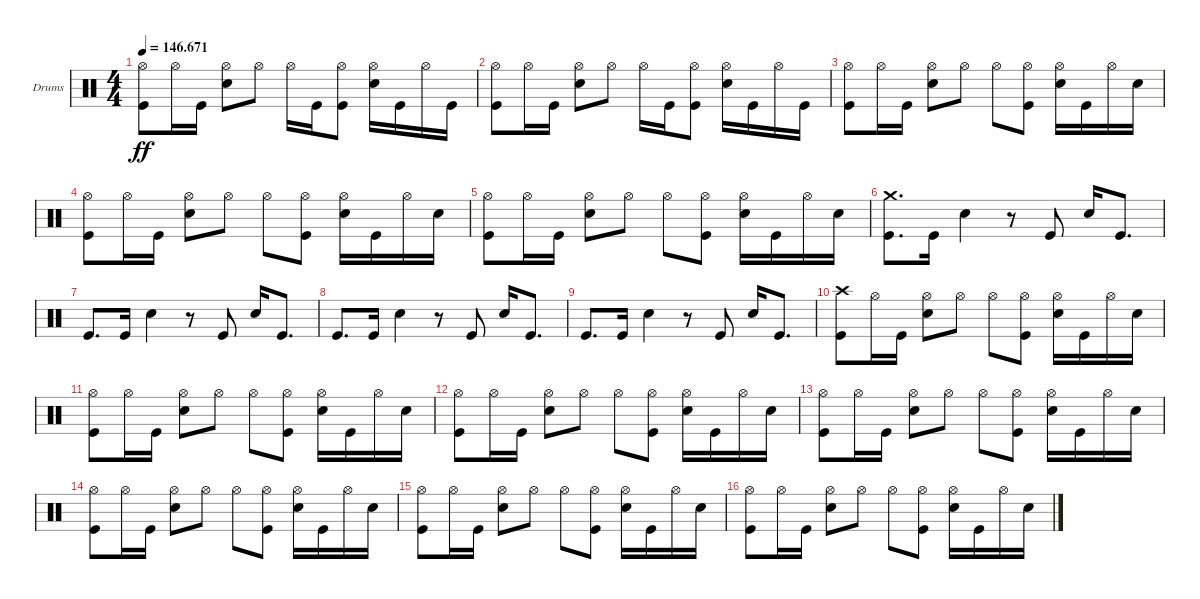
\bracketExtendMode groupsimilarinstruments
\firstSystemTrackNameOrientation horizontal
\otherSystemsTrackNameOrientation horizontal
\track ("Drumkit" "Drums") {instrument percussion}
\staff {score}
\articulation defaults
\ts (4 4)
\tempo
146.671
\accidentals auto
\clef neutral
\ottava regular
\simile none
\ks c
("Hi-Hat (open)" "Kick (hit)").8{dy ff} "Hi-Hat (open)".16 "Kick (hit)".16 ("Hi-Hat (open)" "Snare (hit) 2").8 "Hi-Hat (open)".8 "Hi-Hat (open)".16 "Kick (hit)".16 ("Hi-Hat (open)" "Kick (hit)").8 ("Hi-Hat (open)" "Snare (hit) 2").16 "Kick (hit)".16 "Hi-Hat (open)".16 "Kick (hit)".16 |
("Hi-Hat (open)" "Kick (hit)").8 "Hi-Hat (open)".16 "Kick (hit)".16 ("Hi-Hat (open)" "Snare (hit) 2").8 "Hi-Hat (open)".8 "Hi-Hat (open)".16 "Kick (hit)".16 ("Hi-Hat (open)" "Kick (hit)").8 ("Hi-Hat (open)" "Snare (hit) 2").16 "Kick (hit)".16 "Hi-Hat (open)".16 "Kick (hit)".16 |
("Hi-Hat (open)" "Kick (hit)").8 "Hi-Hat (open)".16 "Kick (hit)".16 ("Hi-Hat (open)" "Snare (hit) 2").8 "Hi-Hat (open)".8 "Hi-Hat (open)".8 ("Hi-Hat (open)" "Kick (hit)").8 ("Hi-Hat (open)" "Snare (hit) 2").16 "Kick (hit)".16 "Hi-Hat (open)".16 "Snare (hit) 2".16 |
("Hi-Hat (open)" "Kick (hit)").8 "Hi-Hat (open)".16 "Kick (hit)".16 ("Hi-Hat (open)" "Snare (hit) 2").8 "Hi-Hat (open)".8 "Hi-Hat (open)".8 ("Hi-Hat (open)" "Kick (hit)").8 ("Hi-Hat (open)" "Snare (hit) 2").16 "Kick (hit)".16 "Hi-Hat (open)".16 "Snare (hit) 2".16 |
("Hi-Hat (open)" "Kick (hit)").8 "Hi-Hat (open)".16 "Kick (hit)".16 ("Hi-Hat (open)" "Snare (hit) 2").8 "Hi-Hat (open)".8 "Hi-Hat (open)".8 ("Hi-Hat (open)" "Kick (hit)").8 ("Hi-Hat (open)" "Snare (hit) 2").16 "Kick (hit)".16 "Hi-Hat (open)".16 "Snare (hit) 2".16 |
("Kick (hit)" "Crash medium (hit)").8{d} "Kick (hit)".16 "Snare (hit) 2".4 r.8 "Kick (hit)".8 "Snare (hit) 2".16 "Kick (hit)".8{d} |
"Kick (hit)".8{d} "Kick (hit)".16 "Snare (hit) 2".4 r.8 "Kick (hit)".8 "Snare (hit) 2".16 "Kick (hit)".8{d} |
"Kick (hit)".8{d} "Kick (hit)".16 "Snare (hit) 2".4 r.8 "Kick (hit)".8 "Snare (hit) 2".16 "Kick (hit)".8{d} |
"Kick (hit)".8{d} "Kick (hit)".16 "Snare (hit) 2".4 r.8 "Kick (hit)".8 "Snare (hit) 2".16 "Kick (hit)".8{d} |
("Kick (hit)" "Crash high (hit)").8 "Hi-Hat (open)".16 "Kick (hit)".16 ("Hi-Hat (open)" "Snare (hit) 2").8 "Hi-Hat (open)".8 "Hi-Hat (open)".8 ("Hi-Hat (open)" "Kick (hit)").8 ("Hi-Hat (open)" "Snare (hit) 2").16 "Kick (hit)".16 "Hi-Hat (open)".16 "Snare (hit) 2".16 |
("Hi-Hat (open)" "Kick (hit)").8 "Hi-Hat (open)".16 "Kick (hit)".16 ("Hi-Hat (open)" "Snare (hit) 2").8 "Hi-Hat (open)".8 "Hi-Hat (open)".8 ("Hi-Hat (open)" "Kick (hit)").8 ("Hi-Hat (open)" "Snare (hit) 2").16 "Kick (hit)".16 "Hi-Hat (open)".16 "Snare (hit) 2".16 |
("Hi-Hat (open)" "Kick (hit)").8 "Hi-Hat (open)".16 "Kick (hit)".16 ("Hi-Hat (open)" "Snare (hit) 2").8 "Hi-Hat (open)".8 "Hi-Hat (open)".8 ("Hi-Hat (open)" "Kick (hit)").8 ("Hi-Hat (open)" "Snare (hit) 2").16 "Kick (hit)".16 "Hi-Hat (open)".16 "Snare (hit) 2".16 |
("Hi-Hat (open)" "Kick (hit)").8 "Hi-Hat (open)".16 "Kick (hit)".16 ("Hi-Hat (open)" "Snare (hit) 2").8 "Hi-Hat (open)".8 "Hi-Hat (open)".8 ("Hi-Hat (open)" "Kick (hit)").8 ("Hi-Hat (open)" "Snare (hit) 2").16 "Kick (hit)".16 "Hi-Hat (open)".16 "Snare (hit) 2".16 |
("Hi-Hat (open)" "Kick (hit)").8 "Hi-Hat (open)".16 "Kick (hit)".16 ("Hi-Hat (open)" "Snare (hit) 2").8 "Hi-Hat (open)".8 "Hi-Hat (open)".8 ("Hi-Hat (open)" "Kick (hit)").8 ("Hi-Hat (open)" "Snare (hit) 2").16 "Kick (hit)".16 "Hi-Hat (open)".16 "Snare (hit) 2".16 |
("Hi-Hat (open)" "Kick (hit)").8 "Hi-Hat (open)".16 "Kick (hit)".16 ("Hi-Hat (open)" "Snare (hit) 2").8 "Hi-Hat (open)".8 "Hi-Hat (open)".8 ("Hi-Hat (open)" "Kick (hit)").8 ("Hi-Hat (open)" "Snare (hit) 2").16 "Kick (hit)".16 "Hi-Hat (open)".16 "Snare (hit) 2".16 |
("Hi-Hat (open)" "Kick (hit)").8 "Hi-Hat (open)".16 "Kick (hit)".16 ("Hi-Hat (open)" "Snare (hit) 2").8 "Hi-Hat (open)".8 "Hi-Hat (open)".8 ("Hi-Hat (open)" "Kick (hit)").8 ("Hi-Hat (open)" "Snare (hit) 2").16 "Kick (hit)".16 "Hi-Hat (open)".16 "Snare (hit) 2".16
